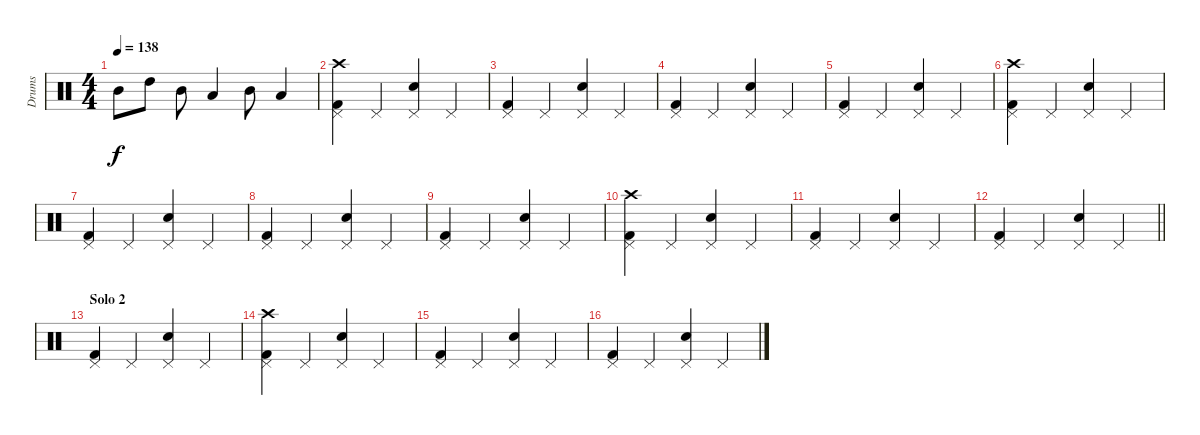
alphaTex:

\track ("Drums" "Drums") {instrument percussion}
\staff {score}
\articulation defaults
\ts (4 4)
\tempo 138
\clef neutral
\ks c "Mid Tom (hit)".8{dy f} "High Tom (hit)".8 "Mid Tom (hit)".8 "Low Tom (hit)".4 "Mid Tom (hit)".8 "Low Tom (hit)".4
|
("Kick (hit) 2" "Pedal Hi-Hat (hit)" "Crash high (hit)").4 "Pedal Hi-Hat (hit)".4 ("Snare (hit) 2" "Pedal Hi-Hat (hit)").4 "Pedal Hi-Hat (hit)".4 |
("Kick (hit) 2" "Pedal Hi-Hat (hit)").4 "Pedal Hi-Hat (hit)".4 ("Snare (hit) 2" "Pedal Hi-Hat (hit)").4 "Pedal Hi-Hat (hit)".4 |
("Kick (hit) 2" "Pedal Hi-Hat (hit)").4 "Pedal Hi-Hat (hit)".4 ("Snare (hit) 2" "Pedal Hi-Hat (hit)").4 "Pedal Hi-Hat (hit)".4 |
("Kick (hit) 2" "Pedal Hi-Hat (hit)").4 "Pedal Hi-Hat (hit)".4 ("Snare (hit) 2" "Pedal Hi-Hat (hit)").4 "Pedal Hi-Hat (hit)".4 |
("Kick (hit) 2" "Pedal Hi-Hat (hit)" "Crash high (hit)").4 "Pedal Hi-Hat (hit)".4 ("Snare (hit) 2" "Pedal Hi-Hat (hit)").4 "Pedal Hi-Hat (hit)".4 |
("Kick (hit) 2" "Pedal Hi-Hat (hit)").4 "Pedal Hi-Hat (hit)".4 ("Snare (hit) 2" "Pedal Hi-Hat (hit)").4 "Pedal Hi-Hat (hit)".4 |
("Kick (hit) 2" "Pedal Hi-Hat (hit)").4 "Pedal Hi-Hat (hit)".4 ("Snare (hit) 2" "Pedal Hi-Hat (hit)").4 "Pedal Hi-Hat (hit)".4 |
("Kick (hit) 2" "Pedal Hi-Hat (hit)").4 "Pedal Hi-Hat (hit)".4 ("Snare (hit) 2" "Pedal Hi-Hat (hit)").4 "Pedal Hi-Hat (hit)".4 |
("Kick (hit) 2" "Pedal Hi-Hat (hit)" "Crash high (hit)").4 "Pedal Hi-Hat (hit)".4 ("Snare (hit) 2" "Pedal Hi-Hat (hit)").4 "Pedal Hi-Hat (hit)".4 |
("Kick (hit) 2" "Pedal Hi-Hat (hit)").4 "Pedal Hi-Hat (hit)".4 ("Snare (hit) 2" "Pedal Hi-Hat (hit)").4 "Pedal Hi-Hat (hit)".4 |
\barLineRight lightlight
("Kick (hit) 2" "Pedal Hi-Hat (hit)").4 "Pedal Hi-Hat (hit)".4 ("Snare (hit) 2" "Pedal Hi-Hat (hit)").4 "Pedal Hi-Hat (hit)".4 |
\section ("" "Solo 2")
("Kick (hit) 2" "Pedal Hi-Hat (hit)").4 "Pedal Hi-Hat (hit)".4 ("Snare (hit) 2" "Pedal Hi-Hat (hit)").4 "Pedal Hi-Hat (hit)".4 |
("Kick (hit) 2" "Pedal Hi-Hat (hit)" "Crash high (hit)").4 "Pedal Hi-Hat (hit)".4 ("Snare (hit) 2" "Pedal Hi-Hat (hit)").4 "Pedal Hi-Hat (hit)".4 |
("Kick (hit) 2" "Pedal Hi-Hat (hit)").4 "Pedal Hi-Hat (hit)".4 ("Snare (hit) 2" "Pedal Hi-Hat (hit)").4 "Pedal Hi-Hat (hit)".4 |
("Kick (hit) 2" "Pedal Hi-Hat (hit)").4 "Pedal Hi-Hat (hit)".4 ("Snare (hit) 2" "Pedal Hi-Hat (hit)").4 "Pedal Hi-Hat (hit)".4
